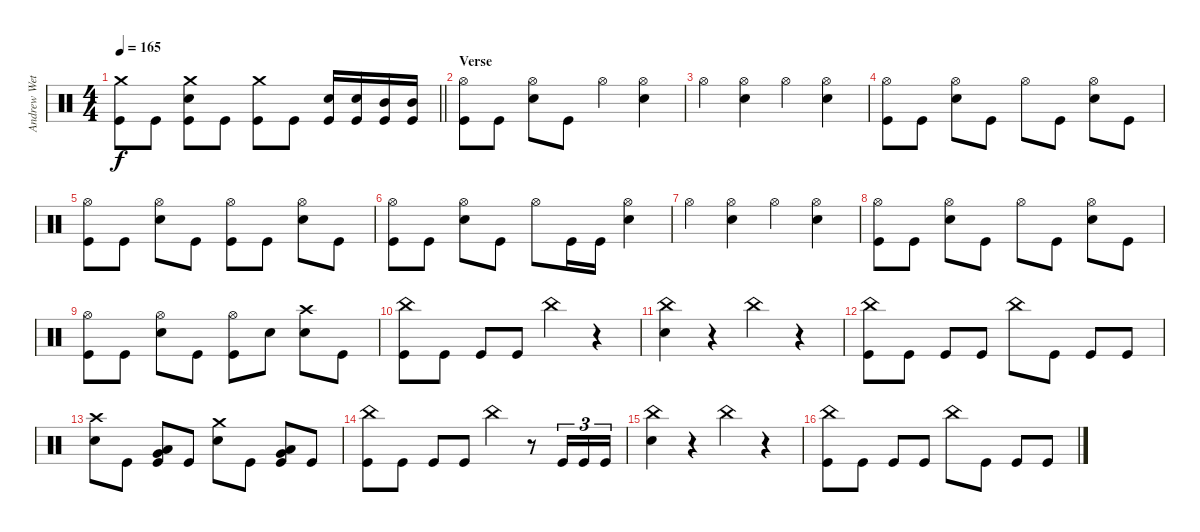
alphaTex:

\track ("Andrew Wetzel" "Andrew Wet") {instrument percussion}
\staff {score}
\articulation defaults
\ts (4 4)
\tempo 165
\clef neutral
\barLineRight lightlight
\ks c
("Crash medium (hit)" "Kick (hit)").8{dy f} "Kick (hit)".8 ("Crash medium (hit)" "Snare (hit) 2" "Kick (hit)").8 "Kick (hit)".8 ("Crash medium (hit)" "Kick (hit)").8 "Kick (hit)".8 ("Snare (hit) 2" "Kick (hit)").16 ("Snare (hit) 2" "Kick (hit)").16 ("Mid Tom (hit)" "Kick (hit)").16 ("Mid Tom (hit)" "Kick (hit)").16 |
\section ("" "Verse")
("Hi-Hat (open)" "Kick (hit)").8 "Kick (hit)".8 ("Hi-Hat (open)" "Snare (hit) 2").8 "Kick (hit)".8 "Hi-Hat (open)".4 ("Hi-Hat (open)" "Snare (hit) 2").4 |
"Hi-Hat (open)".4 ("Hi-Hat (open)" "Snare (hit) 2").4 "Hi-Hat (open)".4 ("Hi-Hat (open)" "Snare (hit) 2").4 |
("Hi-Hat (open)" "Kick (hit)").8 "Kick (hit)".8 ("Hi-Hat (open)" "Snare (hit) 2").8 "Kick (hit)".8 "Hi-Hat (open)".8 "Kick (hit)".8 ("Hi-Hat (open)" "Snare (hit) 2").8 "Kick (hit)".8 |
("Hi-Hat (open)" "Kick (hit)").8 "Kick (hit)".8 ("Hi-Hat (open)" "Snare (hit) 2").8 "Kick (hit)".8 ("Hi-Hat (open)" "Kick (hit)").8 "Kick (hit)".8 ("Hi-Hat (open)" "Snare (hit) 2").8 "Kick (hit)".8 |
("Hi-Hat (open)" "Kick (hit)").8 "Kick (hit)".8 ("Hi-Hat (open)" "Snare (hit) 2").8 "Kick (hit)".8 "Hi-Hat (open)".8 "Kick (hit)".16 "Kick (hit)".16 ("Hi-Hat (open)" "Snare (hit) 2").4 |
"Hi-Hat (open)".4 ("Hi-Hat (open)" "Snare (hit) 2").4 "Hi-Hat (open)".4 ("Hi-Hat (open)" "Snare (hit) 2").4 |
("Hi-Hat (open)" "Kick (hit)").8 "Kick (hit)".8 ("Hi-Hat (open)" "Snare (hit) 2").8 "Kick (hit)".8 "Hi-Hat (open)".8 "Kick (hit)".8 ("Hi-Hat (open)" "Snare (hit) 2").8 "Kick (hit)".8 |
("Hi-Hat (open)" "Kick (hit)").8 "Kick (hit)".8 ("Hi-Hat (open)" "Snare (hit) 2").8 "Kick (hit)".8 ("Hi-Hat (open)" "Kick (hit)").8 "Snare (hit) 2".8 ("Crash high (hit)" "Snare (hit) 2").8 "Kick (hit)".8 |
("China (hit)" "Kick (hit)").8 "Kick (hit)".8 "Kick (hit)".8 "Kick (hit)".8 "China (hit)".4 r.4 |
("China (hit)" "Snare (hit) 2").4 r.4 "China (hit)".4 r.4 |
("China (hit)" "Kick (hit)").8 "Kick (hit)".8 "Kick (hit)".8 "Kick (hit)".8 "China (hit)".8 "Kick (hit)".8 "Kick (hit)".8 "Kick (hit)".8 |
("Crash high (hit)" "Snare (hit) 2").8 "Kick (hit)".8 ("Low Tom (hit)" "Very Low Tom (hit)" "Kick (hit)").8 "Kick (hit)".8 ("Crash medium (hit)" "Snare (hit) 2").8 "Kick (hit)".8 ("Low Tom (hit)" "Very Low Tom (hit)" "Kick (hit)").8 "Kick (hit)".8 |
("China (hit)" "Kick (hit)").8 "Kick (hit)".8 "Kick (hit)".8 "Kick (hit)".8 "China (hit)".4 r.8 "Kick (hit)".16{tu (3 2)} "Kick (hit)".16{tu (3 2)} "Kick (hit)".16{tu (3 2)} |
("China (hit)" "Snare (hit) 2").4 r.4 "China (hit)".4 r.4 |
("China (hit)" "Kick (hit)").8 "Kick (hit)".8 "Kick (hit)".8 "Kick (hit)".8 "China (hit)".8 "Kick (hit)".8 "Kick (hit)".8 "Kick (hit)".8
